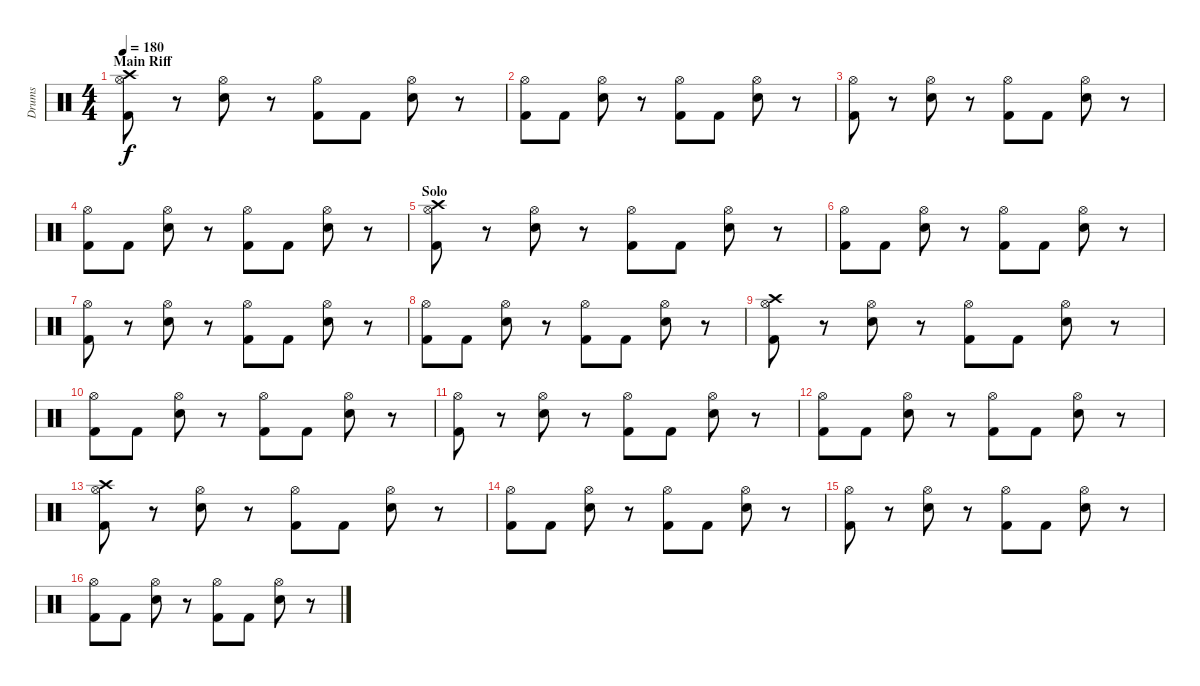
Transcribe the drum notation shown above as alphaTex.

\track ("Drums" "Drums") {instrument percussion}
\staff {score}
\articulation defaults
\ts (4 4)
\section ("" "Main Riff")
\tempo 180
\clef neutral
\ks c
("Crash high (hit)" "Hi-Hat (open)" "Kick (hit) 2").8{dy f} r.8 ("Hi-Hat (open)" "Snare (hit) 2").8 r.8 ("Hi-Hat (open)" "Kick (hit) 2").8 "Kick (hit) 2".8 ("Hi-Hat (open)" "Snare (hit) 2").8 r.8 |
("Hi-Hat (open)" "Kick (hit) 2").8 "Kick (hit) 2".8 ("Hi-Hat (open)" "Snare (hit) 2").8 r.8 ("Hi-Hat (open)" "Kick (hit) 2").8 "Kick (hit) 2".8 ("Hi-Hat (open)" "Snare (hit) 2").8 r.8 |
("Hi-Hat (open)" "Kick (hit) 2").8 r.8 ("Hi-Hat (open)" "Snare (hit) 2").8 r.8 ("Hi-Hat (open)" "Kick (hit) 2").8 "Kick (hit) 2".8 ("Hi-Hat (open)" "Snare (hit) 2").8 r.8 |
("Hi-Hat (open)" "Kick (hit) 2").8 "Kick (hit) 2".8 ("Hi-Hat (open)" "Snare (hit) 2").8 r.8 ("Hi-Hat (open)" "Kick (hit) 2").8 "Kick (hit) 2".8 ("Hi-Hat (open)" "Snare (hit) 2").8 r.8 |
\section ("" "Solo")
("Crash high (hit)" "Hi-Hat (open)" "Kick (hit) 2").8 r.8 ("Hi-Hat (open)" "Snare (hit) 2").8 r.8 ("Hi-Hat (open)" "Kick (hit) 2").8 "Kick (hit) 2".8 ("Hi-Hat (open)" "Snare (hit) 2").8 r.8 |
("Hi-Hat (open)" "Kick (hit) 2").8 "Kick (hit) 2".8 ("Hi-Hat (open)" "Snare (hit) 2").8 r.8 ("Hi-Hat (open)" "Kick (hit) 2").8 "Kick (hit) 2".8 ("Hi-Hat (open)" "Snare (hit) 2").8 r.8 |
("Hi-Hat (open)" "Kick (hit) 2").8 r.8 ("Hi-Hat (open)" "Snare (hit) 2").8 r.8 ("Hi-Hat (open)" "Kick (hit) 2").8 "Kick (hit) 2".8 ("Hi-Hat (open)" "Snare (hit) 2").8 r.8 |
("Hi-Hat (open)" "Kick (hit) 2").8 "Kick (hit) 2".8 ("Hi-Hat (open)" "Snare (hit) 2").8 r.8 ("Hi-Hat (open)" "Kick (hit) 2").8 "Kick (hit) 2".8 ("Hi-Hat (open)" "Snare (hit) 2").8 r.8 |
("Crash high (hit)" "Hi-Hat (open)" "Kick (hit) 2").8 r.8 ("Hi-Hat (open)" "Snare (hit) 2").8 r.8 ("Hi-Hat (open)" "Kick (hit) 2").8 "Kick (hit) 2".8 ("Hi-Hat (open)" "Snare (hit) 2").8 r.8 |
("Hi-Hat (open)" "Kick (hit) 2").8 "Kick (hit) 2".8 ("Hi-Hat (open)" "Snare (hit) 2").8 r.8 ("Hi-Hat (open)" "Kick (hit) 2").8 "Kick (hit) 2".8 ("Hi-Hat (open)" "Snare (hit) 2").8 r.8 |
("Hi-Hat (open)" "Kick (hit) 2").8 r.8 ("Hi-Hat (open)" "Snare (hit) 2").8 r.8 ("Hi-Hat (open)" "Kick (hit) 2").8 "Kick (hit) 2".8 ("Hi-Hat (open)" "Snare (hit) 2").8 r.8 |
("Hi-Hat (open)" "Kick (hit) 2").8 "Kick (hit) 2".8 ("Hi-Hat (open)" "Snare (hit) 2").8 r.8 ("Hi-Hat (open)" "Kick (hit) 2").8 "Kick (hit) 2".8 ("Hi-Hat (open)" "Snare (hit) 2").8 r.8 |
("Crash high (hit)" "Hi-Hat (open)" "Kick (hit) 2").8 r.8 ("Hi-Hat (open)" "Snare (hit) 2").8 r.8 ("Hi-Hat (open)" "Kick (hit) 2").8 "Kick (hit) 2".8 ("Hi-Hat (open)" "Snare (hit) 2").8 r.8 |
("Hi-Hat (open)" "Kick (hit) 2").8 "Kick (hit) 2".8 ("Hi-Hat (open)" "Snare (hit) 2").8 r.8 ("Hi-Hat (open)" "Kick (hit) 2").8 "Kick (hit) 2".8 ("Hi-Hat (open)" "Snare (hit) 2").8 r.8 |
("Hi-Hat (open)" "Kick (hit) 2").8 r.8 ("Hi-Hat (open)" "Snare (hit) 2").8 r.8 ("Hi-Hat (open)" "Kick (hit) 2").8 "Kick (hit) 2".8 ("Hi-Hat (open)" "Snare (hit) 2").8 r.8 |
("Hi-Hat (open)" "Kick (hit) 2").8 "Kick (hit) 2".8 ("Hi-Hat (open)" "Snare (hit) 2").8 r.8 ("Hi-Hat (open)" "Kick (hit) 2").8 "Kick (hit) 2".8 ("Hi-Hat (open)" "Snare (hit) 2").8 r.8
